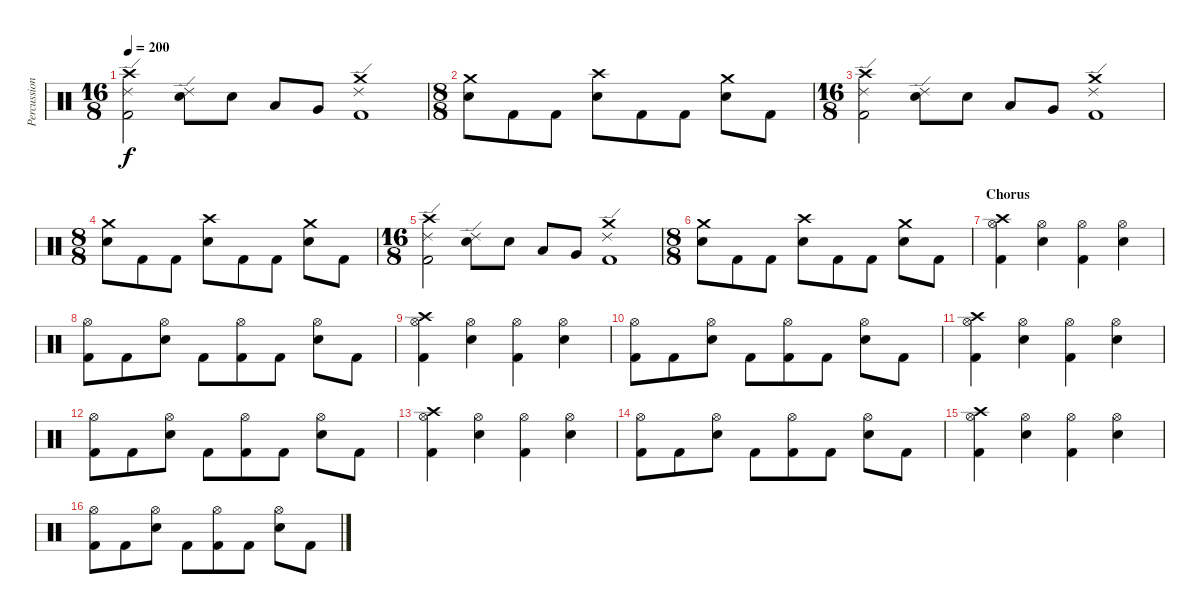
\track ("Percussions" "Percussion") {instrument percussion}
\staff {score}
\articulation defaults
\ts (16 8)
\tempo 200
\clef neutral
\ks c
("Crash high (hit)" "Ride (edge) 2" "Kick (hit) 2").2{dy f} ("Ride (edge) 2" "Electric Snare (hit)").8 "Electric Snare (hit)".8 "Low Tom (hit)".8 "Very Low Tom (hit)".8 ("Crash medium (hit)" "Ride (edge) 2" "Kick (hit) 2").1 |
\ts (8 8)
("Crash medium (hit)" "Electric Snare (hit)").8 "Kick (hit) 2".8 "Kick (hit) 2".8 ("Crash high (hit)" "Electric Snare (hit)").8 "Kick (hit) 2".8 "Kick (hit) 2".8 ("Crash medium (hit)" "Electric Snare (hit)").8 "Kick (hit) 2".8 |
\ts (16 8)
("Crash high (hit)" "Ride (edge) 2" "Kick (hit) 2").2 ("Ride (edge) 2" "Electric Snare (hit)").8 "Electric Snare (hit)".8 "Low Tom (hit)".8 "Very Low Tom (hit)".8 ("Crash medium (hit)" "Ride (edge) 2" "Kick (hit) 2").1 |
\ts (8 8)
("Crash medium (hit)" "Electric Snare (hit)").8 "Kick (hit) 2".8 "Kick (hit) 2".8 ("Crash high (hit)" "Electric Snare (hit)").8 "Kick (hit) 2".8 "Kick (hit) 2".8 ("Crash medium (hit)" "Electric Snare (hit)").8 "Kick (hit) 2".8 |
\ts (16 8)
("Crash high (hit)" "Ride (edge) 2" "Kick (hit) 2").2 ("Ride (edge) 2" "Electric Snare (hit)").8 "Electric Snare (hit)".8 "Low Tom (hit)".8 "Very Low Tom (hit)".8 ("Crash medium (hit)" "Ride (edge) 2" "Kick (hit) 2").1 |
\ts (8 8)
("Crash medium (hit)" "Electric Snare (hit)").8 "Kick (hit) 2".8 "Kick (hit) 2".8 ("Crash high (hit)" "Electric Snare (hit)").8 "Kick (hit) 2".8 "Kick (hit) 2".8 ("Crash medium (hit)" "Electric Snare (hit)").8 "Kick (hit) 2".8 |
\section ("" "Chorus")
("Crash high (hit)" "Hi-Hat (open)" "Kick (hit) 2").4 ("Hi-Hat (open)" "Electric Snare (hit)").4 ("Hi-Hat (open)" "Kick (hit) 2").4 ("Hi-Hat (open)" "Electric Snare (hit)").4 |
("Hi-Hat (open)" "Kick (hit) 2").8 "Kick (hit) 2".8 ("Hi-Hat (open)" "Electric Snare (hit)").8 "Kick (hit) 2".8 ("Hi-Hat (open)" "Kick (hit) 2").8 "Kick (hit) 2".8 ("Hi-Hat (open)" "Electric Snare (hit)").8 "Kick (hit) 2".8 |
("Crash high (hit)" "Hi-Hat (open)" "Kick (hit) 2").4 ("Hi-Hat (open)" "Electric Snare (hit)").4 ("Hi-Hat (open)" "Kick (hit) 2").4 ("Hi-Hat (open)" "Electric Snare (hit)").4 |
("Hi-Hat (open)" "Kick (hit) 2").8 "Kick (hit) 2".8 ("Hi-Hat (open)" "Electric Snare (hit)").8 "Kick (hit) 2".8 ("Hi-Hat (open)" "Kick (hit) 2").8 "Kick (hit) 2".8 ("Hi-Hat (open)" "Electric Snare (hit)").8 "Kick (hit) 2".8 |
("Crash high (hit)" "Hi-Hat (open)" "Kick (hit) 2").4 ("Hi-Hat (open)" "Electric Snare (hit)").4 ("Hi-Hat (open)" "Kick (hit) 2").4 ("Hi-Hat (open)" "Electric Snare (hit)").4 |
("Hi-Hat (open)" "Kick (hit) 2").8 "Kick (hit) 2".8 ("Hi-Hat (open)" "Electric Snare (hit)").8 "Kick (hit) 2".8 ("Hi-Hat (open)" "Kick (hit) 2").8 "Kick (hit) 2".8 ("Hi-Hat (open)" "Electric Snare (hit)").8 "Kick (hit) 2".8 |
("Crash high (hit)" "Hi-Hat (open)" "Kick (hit) 2").4 ("Hi-Hat (open)" "Electric Snare (hit)").4 ("Hi-Hat (open)" "Kick (hit) 2").4 ("Hi-Hat (open)" "Electric Snare (hit)").4 |
("Hi-Hat (open)" "Kick (hit) 2").8 "Kick (hit) 2".8 ("Hi-Hat (open)" "Electric Snare (hit)").8 "Kick (hit) 2".8 ("Hi-Hat (open)" "Kick (hit) 2").8 "Kick (hit) 2".8 ("Hi-Hat (open)" "Electric Snare (hit)").8 "Kick (hit) 2".8 |
("Crash high (hit)" "Hi-Hat (open)" "Kick (hit) 2").4 ("Hi-Hat (open)" "Electric Snare (hit)").4 ("Hi-Hat (open)" "Kick (hit) 2").4 ("Hi-Hat (open)" "Electric Snare (hit)").4 |
("Hi-Hat (open)" "Kick (hit) 2").8 "Kick (hit) 2".8 ("Hi-Hat (open)" "Electric Snare (hit)").8 "Kick (hit) 2".8 ("Hi-Hat (open)" "Kick (hit) 2").8 "Kick (hit) 2".8 ("Hi-Hat (open)" "Electric Snare (hit)").8 "Kick (hit) 2".8
